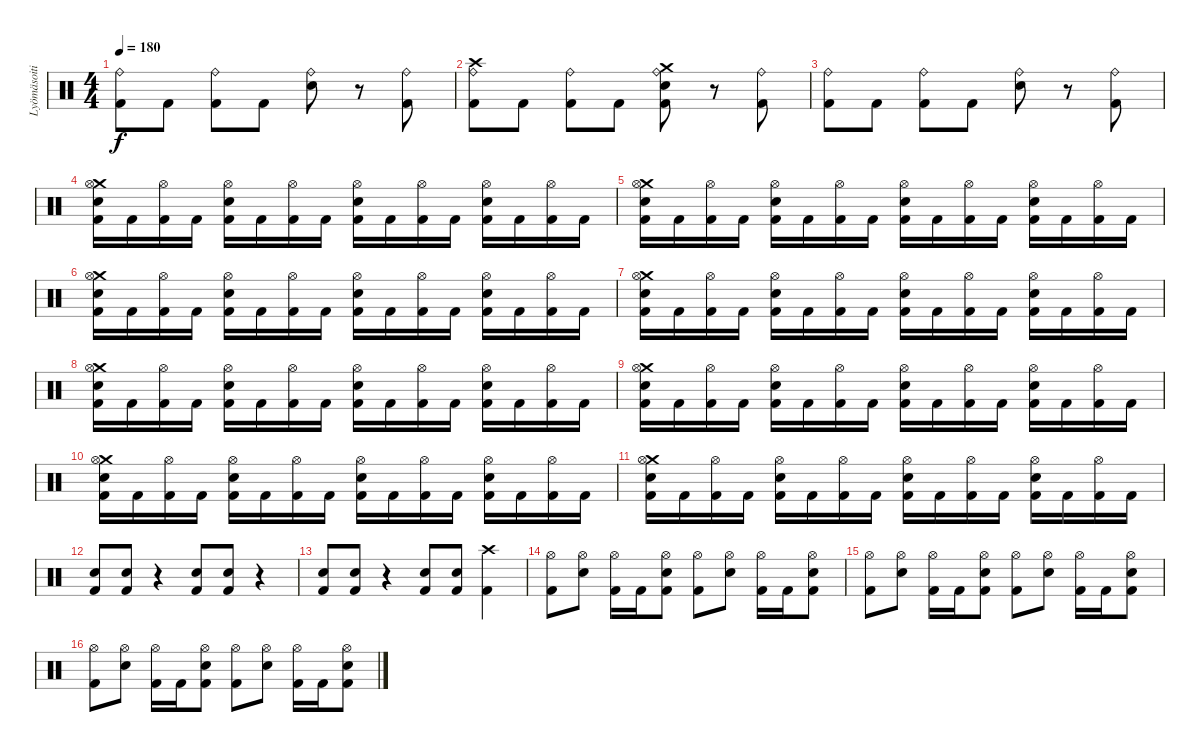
\track ("Lyömäsoitin" "Lyömäsoiti") {instrument percussion}
\staff {score}
\articulation defaults
\ts (4 4)
\tempo 180
\clef neutral
\ks c
("Ride (bell)" "Kick (hit) 2").8{dy f} "Kick (hit) 2".8 ("Ride (bell)" "Kick (hit) 2").8 "Kick (hit) 2".8 ("Ride (bell)" "Snare (hit) 2").8 r.8 ("Ride (bell)" "Kick (hit) 2").8 |
("Ride (bell)" "Kick (hit) 2" "Crash high (hit)").8 "Kick (hit) 2".8 ("Ride (bell)" "Kick (hit) 2").8 "Kick (hit) 2".8 ("Ride (bell)" "Kick (hit) 2" "Snare (hit) 2" "Crash medium (hit)").8 r.8 ("Ride (bell)" "Kick (hit) 2").8 |
("Ride (bell)" "Kick (hit) 2").8 "Kick (hit) 2".8 ("Ride (bell)" "Kick (hit) 2").8 "Kick (hit) 2".8 ("Ride (bell)" "Snare (hit) 2").8 r.8 ("Ride (bell)" "Kick (hit) 2").8 |
("Kick (hit) 2" "Snare (hit) 2" "Crash medium (hit)" "Hi-Hat (open)").16 "Kick (hit) 2".16 ("Kick (hit) 2" "Hi-Hat (open)").16 "Kick (hit) 2".16 ("Kick (hit) 2" "Snare (hit) 2" "Hi-Hat (open)").16 "Kick (hit) 2".16 ("Kick (hit) 2" "Hi-Hat (open)").16 "Kick (hit) 2".16 ("Kick (hit) 2" "Snare (hit) 2" "Hi-Hat (open)").16 "Kick (hit) 2".16 ("Kick (hit) 2" "Hi-Hat (open)").16 "Kick (hit) 2".16 ("Kick (hit) 2" "Snare (hit) 2" "Hi-Hat (open)").16 "Kick (hit) 2".16 ("Kick (hit) 2" "Hi-Hat (open)").16 "Kick (hit) 2".16 |
("Kick (hit) 2" "Snare (hit) 2" "Crash medium (hit)" "Hi-Hat (open)").16 "Kick (hit) 2".16 ("Kick (hit) 2" "Hi-Hat (open)").16 "Kick (hit) 2".16 ("Kick (hit) 2" "Snare (hit) 2" "Hi-Hat (open)").16 "Kick (hit) 2".16 ("Kick (hit) 2" "Hi-Hat (open)").16 "Kick (hit) 2".16 ("Kick (hit) 2" "Snare (hit) 2" "Hi-Hat (open)").16 "Kick (hit) 2".16 ("Kick (hit) 2" "Hi-Hat (open)").16 "Kick (hit) 2".16 ("Kick (hit) 2" "Snare (hit) 2" "Hi-Hat (open)").16 "Kick (hit) 2".16 ("Kick (hit) 2" "Hi-Hat (open)").16 "Kick (hit) 2".16 |
("Kick (hit) 2" "Snare (hit) 2" "Crash medium (hit)" "Hi-Hat (open)").16 "Kick (hit) 2".16 ("Kick (hit) 2" "Hi-Hat (open)").16 "Kick (hit) 2".16 ("Kick (hit) 2" "Snare (hit) 2" "Hi-Hat (open)").16 "Kick (hit) 2".16 ("Kick (hit) 2" "Hi-Hat (open)").16 "Kick (hit) 2".16 ("Kick (hit) 2" "Snare (hit) 2" "Hi-Hat (open)").16 "Kick (hit) 2".16 ("Kick (hit) 2" "Hi-Hat (open)").16 "Kick (hit) 2".16 ("Kick (hit) 2" "Snare (hit) 2" "Hi-Hat (open)").16 "Kick (hit) 2".16 ("Kick (hit) 2" "Hi-Hat (open)").16 "Kick (hit) 2".16 |
("Kick (hit) 2" "Snare (hit) 2" "Crash medium (hit)" "Hi-Hat (open)").16 "Kick (hit) 2".16 ("Kick (hit) 2" "Hi-Hat (open)").16 "Kick (hit) 2".16 ("Kick (hit) 2" "Snare (hit) 2" "Hi-Hat (open)").16 "Kick (hit) 2".16 ("Kick (hit) 2" "Hi-Hat (open)").16 "Kick (hit) 2".16 ("Kick (hit) 2" "Snare (hit) 2" "Hi-Hat (open)").16 "Kick (hit) 2".16 ("Kick (hit) 2" "Hi-Hat (open)").16 "Kick (hit) 2".16 ("Kick (hit) 2" "Snare (hit) 2" "Hi-Hat (open)").16 "Kick (hit) 2".16 ("Kick (hit) 2" "Hi-Hat (open)").16 "Kick (hit) 2".16 |
("Kick (hit) 2" "Snare (hit) 2" "Crash medium (hit)" "Hi-Hat (open)").16 "Kick (hit) 2".16 ("Kick (hit) 2" "Hi-Hat (open)").16 "Kick (hit) 2".16 ("Kick (hit) 2" "Snare (hit) 2" "Hi-Hat (open)").16 "Kick (hit) 2".16 ("Kick (hit) 2" "Hi-Hat (open)").16 "Kick (hit) 2".16 ("Kick (hit) 2" "Snare (hit) 2" "Hi-Hat (open)").16 "Kick (hit) 2".16 ("Kick (hit) 2" "Hi-Hat (open)").16 "Kick (hit) 2".16 ("Kick (hit) 2" "Snare (hit) 2" "Hi-Hat (open)").16 "Kick (hit) 2".16 ("Kick (hit) 2" "Hi-Hat (open)").16 "Kick (hit) 2".16 |
("Kick (hit) 2" "Snare (hit) 2" "Crash medium (hit)" "Hi-Hat (open)").16 "Kick (hit) 2".16 ("Kick (hit) 2" "Hi-Hat (open)").16 "Kick (hit) 2".16 ("Kick (hit) 2" "Snare (hit) 2" "Hi-Hat (open)").16 "Kick (hit) 2".16 ("Kick (hit) 2" "Hi-Hat (open)").16 "Kick (hit) 2".16 ("Kick (hit) 2" "Snare (hit) 2" "Hi-Hat (open)").16 "Kick (hit) 2".16 ("Kick (hit) 2" "Hi-Hat (open)").16 "Kick (hit) 2".16 ("Kick (hit) 2" "Snare (hit) 2" "Hi-Hat (open)").16 "Kick (hit) 2".16 ("Kick (hit) 2" "Hi-Hat (open)").16 "Kick (hit) 2".16 |
("Kick (hit) 2" "Snare (hit) 2" "Crash medium (hit)" "Hi-Hat (open)").16 "Kick (hit) 2".16 ("Kick (hit) 2" "Hi-Hat (open)").16 "Kick (hit) 2".16 ("Kick (hit) 2" "Snare (hit) 2" "Hi-Hat (open)").16 "Kick (hit) 2".16 ("Kick (hit) 2" "Hi-Hat (open)").16 "Kick (hit) 2".16 ("Kick (hit) 2" "Snare (hit) 2" "Hi-Hat (open)").16 "Kick (hit) 2".16 ("Kick (hit) 2" "Hi-Hat (open)").16 "Kick (hit) 2".16 ("Kick (hit) 2" "Snare (hit) 2" "Hi-Hat (open)").16 "Kick (hit) 2".16 ("Kick (hit) 2" "Hi-Hat (open)").16 "Kick (hit) 2".16 |
("Kick (hit) 2" "Snare (hit) 2" "Crash medium (hit)" "Hi-Hat (open)").16 "Kick (hit) 2".16 ("Kick (hit) 2" "Hi-Hat (open)").16 "Kick (hit) 2".16 ("Kick (hit) 2" "Snare (hit) 2" "Hi-Hat (open)").16 "Kick (hit) 2".16 ("Kick (hit) 2" "Hi-Hat (open)").16 "Kick (hit) 2".16 ("Kick (hit) 2" "Snare (hit) 2" "Hi-Hat (open)").16 "Kick (hit) 2".16 ("Kick (hit) 2" "Hi-Hat (open)").16 "Kick (hit) 2".16 ("Kick (hit) 2" "Snare (hit) 2" "Hi-Hat (open)").16 "Kick (hit) 2".16 ("Kick (hit) 2" "Hi-Hat (open)").16 "Kick (hit) 2".16 |
("Kick (hit) 2" "Snare (hit) 2").8 ("Kick (hit) 2" "Snare (hit) 2").8 r.4 ("Kick (hit) 2" "Snare (hit) 2").8 ("Kick (hit) 2" "Snare (hit) 2").8 r.4 |
("Kick (hit) 2" "Snare (hit) 2").8 ("Kick (hit) 2" "Snare (hit) 2").8 r.4 ("Kick (hit) 2" "Snare (hit) 2").8 ("Kick (hit) 2" "Snare (hit) 2").8 ("Kick (hit) 2" "Crash high (hit)").4 |
("Kick (hit) 2" "Hi-Hat (open)").8 ("Snare (hit) 2" "Hi-Hat (open)").8 ("Kick (hit) 2" "Hi-Hat (open)").16 "Kick (hit) 2".16 ("Kick (hit) 2" "Snare (hit) 2" "Hi-Hat (open)").8 ("Kick (hit) 2" "Hi-Hat (open)").8 ("Snare (hit) 2" "Hi-Hat (open)").8 ("Kick (hit) 2" "Hi-Hat (open)").16 "Kick (hit) 2".16 ("Kick (hit) 2" "Snare (hit) 2" "Hi-Hat (open)").8 |
("Kick (hit) 2" "Hi-Hat (open)").8 ("Snare (hit) 2" "Hi-Hat (open)").8 ("Kick (hit) 2" "Hi-Hat (open)").16 "Kick (hit) 2".16 ("Kick (hit) 2" "Snare (hit) 2" "Hi-Hat (open)").8 ("Kick (hit) 2" "Hi-Hat (open)").8 ("Snare (hit) 2" "Hi-Hat (open)").8 ("Kick (hit) 2" "Hi-Hat (open)").16 "Kick (hit) 2".16 ("Kick (hit) 2" "Snare (hit) 2" "Hi-Hat (open)").8 |
("Kick (hit) 2" "Hi-Hat (open)").8 ("Snare (hit) 2" "Hi-Hat (open)").8 ("Kick (hit) 2" "Hi-Hat (open)").16 "Kick (hit) 2".16 ("Kick (hit) 2" "Snare (hit) 2" "Hi-Hat (open)").8 ("Kick (hit) 2" "Hi-Hat (open)").8 ("Snare (hit) 2" "Hi-Hat (open)").8 ("Kick (hit) 2" "Hi-Hat (open)").16 "Kick (hit) 2".16 ("Kick (hit) 2" "Snare (hit) 2" "Hi-Hat (open)").8
